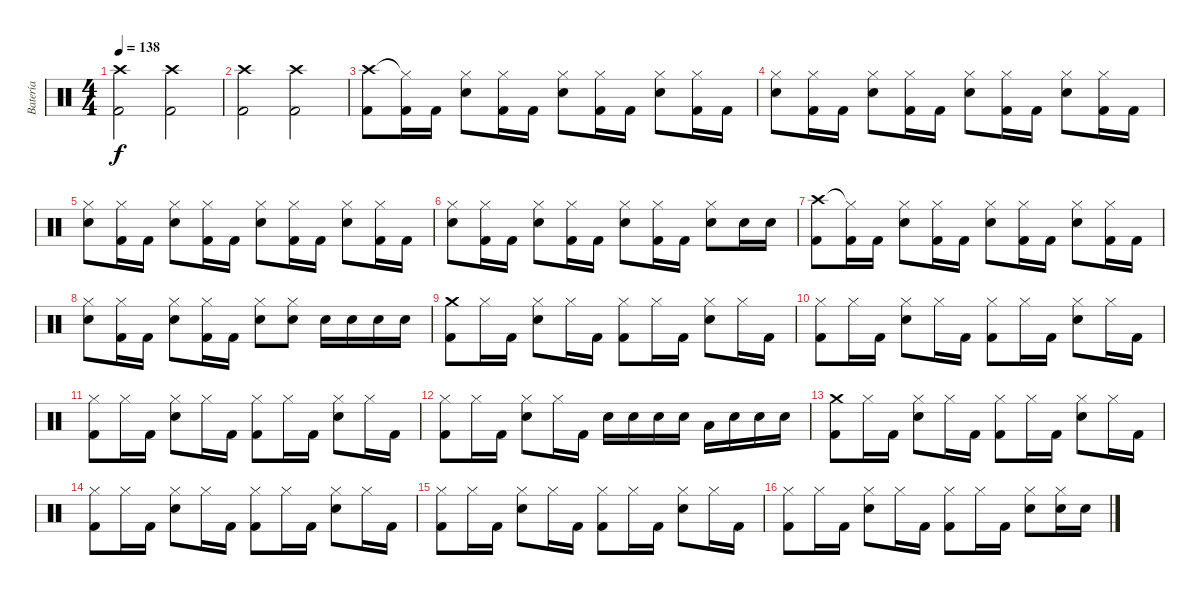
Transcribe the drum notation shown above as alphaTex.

\track ("Batería" "Batería") {instrument percussion}
\staff {score}
\articulation defaults
\ts (4 4)
\tempo 138
\clef neutral
\ks c
("Crash high (hit)" "Kick (hit) 2").2{dy f} ("Crash high (hit)" "Kick (hit) 2").2 |
("Crash high (hit)" "Kick (hit) 2").2 ("Crash high (hit)" "Kick (hit) 2").2 |
("Crash high (hit)" "Kick (hit) 2").8 ("Hi-Hat (closed)"{t} "Kick (hit) 2").16 "Kick (hit) 2".16 ("Hi-Hat (closed)" "Snare (hit) 2").8 ("Hi-Hat (closed)" "Kick (hit) 2").16 "Kick (hit) 2".16 ("Hi-Hat (closed)" "Snare (hit) 2").8 ("Hi-Hat (closed)" "Kick (hit) 2").16 "Kick (hit) 2".16 ("Hi-Hat (closed)" "Snare (hit) 2").8 ("Hi-Hat (closed)" "Kick (hit) 2").16 "Kick (hit) 2".16 |
("Hi-Hat (closed)" "Snare (hit) 2").8 ("Hi-Hat (closed)" "Kick (hit) 2").16 "Kick (hit) 2".16 ("Hi-Hat (closed)" "Snare (hit) 2").8 ("Hi-Hat (closed)" "Kick (hit) 2").16 "Kick (hit) 2".16 ("Hi-Hat (closed)" "Snare (hit) 2").8 ("Hi-Hat (closed)" "Kick (hit) 2").16 "Kick (hit) 2".16 ("Hi-Hat (closed)" "Snare (hit) 2").8 ("Hi-Hat (closed)" "Kick (hit) 2").16 "Kick (hit) 2".16 |
("Hi-Hat (closed)" "Snare (hit) 2").8 ("Hi-Hat (closed)" "Kick (hit) 2").16 "Kick (hit) 2".16 ("Hi-Hat (closed)" "Snare (hit) 2").8 ("Hi-Hat (closed)" "Kick (hit) 2").16 "Kick (hit) 2".16 ("Hi-Hat (closed)" "Snare (hit) 2").8 ("Hi-Hat (closed)" "Kick (hit) 2").16 "Kick (hit) 2".16 ("Hi-Hat (closed)" "Snare (hit) 2").8 ("Hi-Hat (closed)" "Kick (hit) 2").16 "Kick (hit) 2".16 |
("Hi-Hat (closed)" "Snare (hit) 2").8 ("Hi-Hat (closed)" "Kick (hit) 2").16 "Kick (hit) 2".16 ("Hi-Hat (closed)" "Snare (hit) 2").8 ("Hi-Hat (closed)" "Kick (hit) 2").16 "Kick (hit) 2".16 ("Hi-Hat (closed)" "Snare (hit) 2").8 ("Hi-Hat (closed)" "Kick (hit) 2").16 "Kick (hit) 2".16 ("Hi-Hat (closed)" "Snare (hit) 2").8 "Snare (hit) 2".16 "Snare (hit) 2".16 |
("Crash high (hit)" "Kick (hit) 2").8 ("Hi-Hat (closed)"{t} "Kick (hit) 2").16 "Kick (hit) 2".16 ("Hi-Hat (closed)" "Snare (hit) 2").8 ("Hi-Hat (closed)" "Kick (hit) 2").16 "Kick (hit) 2".16 ("Hi-Hat (closed)" "Snare (hit) 2").8 ("Hi-Hat (closed)" "Kick (hit) 2").16 "Kick (hit) 2".16 ("Hi-Hat (closed)" "Snare (hit) 2").8 ("Hi-Hat (closed)" "Kick (hit) 2").16 "Kick (hit) 2".16 |
("Hi-Hat (closed)" "Snare (hit) 2").8 ("Hi-Hat (closed)" "Kick (hit) 2").16 "Kick (hit) 2".16 ("Hi-Hat (closed)" "Snare (hit) 2").8 ("Hi-Hat (closed)" "Kick (hit) 2").16 "Kick (hit) 2".16 ("Hi-Hat (closed)" "Snare (hit) 2").8 ("Hi-Hat (closed)" "Snare (hit) 2").8 "Snare (hit) 2".16 "Snare (hit) 2".16 "Snare (hit) 2".16 "Snare (hit) 2".16 |
("Crash medium (hit)" "Kick (hit) 2").8 "Hi-Hat (closed)".16 "Kick (hit) 2".16 ("Hi-Hat (closed)" "Snare (hit) 2").8 "Hi-Hat (closed)".16 "Kick (hit) 2".16 ("Hi-Hat (closed)" "Kick (hit) 2").8 "Hi-Hat (closed)".16 "Kick (hit) 2".16 ("Hi-Hat (closed)" "Snare (hit) 2").8 "Hi-Hat (closed)".16 "Kick (hit) 2".16 |
("Hi-Hat (closed)" "Kick (hit) 2").8 "Hi-Hat (closed)".16 "Kick (hit) 2".16 ("Hi-Hat (closed)" "Snare (hit) 2").8 "Hi-Hat (closed)".16 "Kick (hit) 2".16 ("Hi-Hat (closed)" "Kick (hit) 2").8 "Hi-Hat (closed)".16 "Kick (hit) 2".16 ("Hi-Hat (closed)" "Snare (hit) 2").8 "Hi-Hat (closed)".16 "Kick (hit) 2".16 |
("Hi-Hat (closed)" "Kick (hit) 2").8 "Hi-Hat (closed)".16 "Kick (hit) 2".16 ("Hi-Hat (closed)" "Snare (hit) 2").8 "Hi-Hat (closed)".16 "Kick (hit) 2".16 ("Hi-Hat (closed)" "Kick (hit) 2").8 "Hi-Hat (closed)".16 "Kick (hit) 2".16 ("Hi-Hat (closed)" "Snare (hit) 2").8 "Hi-Hat (closed)".16 "Kick (hit) 2".16 |
("Hi-Hat (closed)" "Kick (hit) 2").8 "Hi-Hat (closed)".16 "Kick (hit) 2".16 ("Hi-Hat (closed)" "Snare (hit) 2").8 "Hi-Hat (closed)".16 "Kick (hit) 2".16 "Snare (hit) 2".16 "Snare (hit) 2".16 "Snare (hit) 2".16 "Snare (hit) 2".16 "Low Floor Tom (hit)".16 "Snare (hit) 2".16 "Snare (hit) 2".16 "Snare (hit) 2".16 |
("Crash medium (hit)" "Kick (hit) 2").8 "Hi-Hat (closed)".16 "Kick (hit) 2".16 ("Hi-Hat (closed)" "Snare (hit) 2").8 "Hi-Hat (closed)".16 "Kick (hit) 2".16 ("Hi-Hat (closed)" "Kick (hit) 2").8 "Hi-Hat (closed)".16 "Kick (hit) 2".16 ("Hi-Hat (closed)" "Snare (hit) 2").8 "Hi-Hat (closed)".16 "Kick (hit) 2".16 |
("Hi-Hat (closed)" "Kick (hit) 2").8 "Hi-Hat (closed)".16 "Kick (hit) 2".16 ("Hi-Hat (closed)" "Snare (hit) 2").8 "Hi-Hat (closed)".16 "Kick (hit) 2".16 ("Hi-Hat (closed)" "Kick (hit) 2").8 "Hi-Hat (closed)".16 "Kick (hit) 2".16 ("Hi-Hat (closed)" "Snare (hit) 2").8 "Hi-Hat (closed)".16 "Kick (hit) 2".16 |
("Hi-Hat (closed)" "Kick (hit) 2").8 "Hi-Hat (closed)".16 "Kick (hit) 2".16 ("Hi-Hat (closed)" "Snare (hit) 2").8 "Hi-Hat (closed)".16 "Kick (hit) 2".16 ("Hi-Hat (closed)" "Kick (hit) 2").8 "Hi-Hat (closed)".16 "Kick (hit) 2".16 ("Hi-Hat (closed)" "Snare (hit) 2").8 "Hi-Hat (closed)".16 "Kick (hit) 2".16 |
("Hi-Hat (closed)" "Kick (hit) 2").8 "Hi-Hat (closed)".16 "Kick (hit) 2".16 ("Hi-Hat (closed)" "Snare (hit) 2").8 "Hi-Hat (closed)".16 "Kick (hit) 2".16 ("Hi-Hat (closed)" "Kick (hit) 2").8 "Hi-Hat (closed)".16 "Kick (hit) 2".16 ("Hi-Hat (closed)" "Snare (hit) 2").8 ("Hi-Hat (closed)" "Snare (hit) 2").16 "Snare (hit) 2".16
